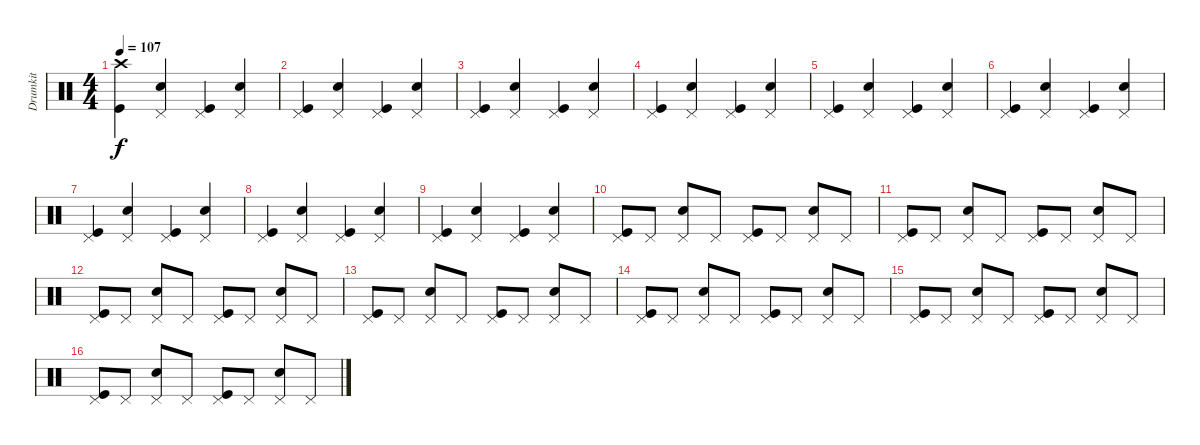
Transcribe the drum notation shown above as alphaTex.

\track ("Drumkit" "Drumkit") {instrument percussion}
\staff {score}
\articulation defaults
\ts (4 4)
\tempo 107
\clef neutral
\ks c
("Crash high (hit)" "Kick (hit)").4{dy f} ("Pedal Hi-Hat (hit)" "Snare (hit) 2").4 ("Pedal Hi-Hat (hit)" "Kick (hit)").4 ("Pedal Hi-Hat (hit)" "Snare (hit) 2").4 |
("Pedal Hi-Hat (hit)" "Kick (hit)").4 ("Pedal Hi-Hat (hit)" "Snare (hit) 2").4 ("Pedal Hi-Hat (hit)" "Kick (hit)").4 ("Pedal Hi-Hat (hit)" "Snare (hit) 2").4 |
("Pedal Hi-Hat (hit)" "Kick (hit)").4 ("Pedal Hi-Hat (hit)" "Snare (hit) 2").4 ("Pedal Hi-Hat (hit)" "Kick (hit)").4 ("Pedal Hi-Hat (hit)" "Snare (hit) 2").4 |
("Pedal Hi-Hat (hit)" "Kick (hit)").4 ("Pedal Hi-Hat (hit)" "Snare (hit) 2").4 ("Pedal Hi-Hat (hit)" "Kick (hit)").4 ("Pedal Hi-Hat (hit)" "Snare (hit) 2").4 |
("Pedal Hi-Hat (hit)" "Kick (hit)").4 ("Pedal Hi-Hat (hit)" "Snare (hit) 2").4 ("Pedal Hi-Hat (hit)" "Kick (hit)").4 ("Pedal Hi-Hat (hit)" "Snare (hit) 2").4 |
("Pedal Hi-Hat (hit)" "Kick (hit)").4 ("Pedal Hi-Hat (hit)" "Snare (hit) 2").4 ("Pedal Hi-Hat (hit)" "Kick (hit)").4 ("Pedal Hi-Hat (hit)" "Snare (hit) 2").4 |
("Pedal Hi-Hat (hit)" "Kick (hit)").4 ("Pedal Hi-Hat (hit)" "Snare (hit) 2").4 ("Pedal Hi-Hat (hit)" "Kick (hit)").4 ("Pedal Hi-Hat (hit)" "Snare (hit) 2").4 |
("Pedal Hi-Hat (hit)" "Kick (hit)").4 ("Pedal Hi-Hat (hit)" "Snare (hit) 2").4 ("Pedal Hi-Hat (hit)" "Kick (hit)").4 ("Pedal Hi-Hat (hit)" "Snare (hit) 2").4 |
("Pedal Hi-Hat (hit)" "Kick (hit)").4 ("Pedal Hi-Hat (hit)" "Snare (hit) 2").4 ("Pedal Hi-Hat (hit)" "Kick (hit)").4 ("Pedal Hi-Hat (hit)" "Snare (hit) 2").4 |
("Pedal Hi-Hat (hit)" "Kick (hit)").8 "Pedal Hi-Hat (hit)".8 ("Pedal Hi-Hat (hit)" "Snare (hit) 2").8 "Pedal Hi-Hat (hit)".8 ("Pedal Hi-Hat (hit)" "Kick (hit)").8 "Pedal Hi-Hat (hit)".8 ("Pedal Hi-Hat (hit)" "Snare (hit) 2").8 "Pedal Hi-Hat (hit)".8 |
("Pedal Hi-Hat (hit)" "Kick (hit)").8 "Pedal Hi-Hat (hit)".8 ("Pedal Hi-Hat (hit)" "Snare (hit) 2").8 "Pedal Hi-Hat (hit)".8 ("Pedal Hi-Hat (hit)" "Kick (hit)").8 "Pedal Hi-Hat (hit)".8 ("Pedal Hi-Hat (hit)" "Snare (hit) 2").8 "Pedal Hi-Hat (hit)".8 |
("Pedal Hi-Hat (hit)" "Kick (hit)").8 "Pedal Hi-Hat (hit)".8 ("Pedal Hi-Hat (hit)" "Snare (hit) 2").8 "Pedal Hi-Hat (hit)".8 ("Pedal Hi-Hat (hit)" "Kick (hit)").8 "Pedal Hi-Hat (hit)".8 ("Pedal Hi-Hat (hit)" "Snare (hit) 2").8 "Pedal Hi-Hat (hit)".8 |
("Pedal Hi-Hat (hit)" "Kick (hit)").8 "Pedal Hi-Hat (hit)".8 ("Pedal Hi-Hat (hit)" "Snare (hit) 2").8 "Pedal Hi-Hat (hit)".8 ("Pedal Hi-Hat (hit)" "Kick (hit)").8 "Pedal Hi-Hat (hit)".8 ("Pedal Hi-Hat (hit)" "Snare (hit) 2").8 "Pedal Hi-Hat (hit)".8 |
("Pedal Hi-Hat (hit)" "Kick (hit)").8 "Pedal Hi-Hat (hit)".8 ("Pedal Hi-Hat (hit)" "Snare (hit) 2").8 "Pedal Hi-Hat (hit)".8 ("Pedal Hi-Hat (hit)" "Kick (hit)").8 "Pedal Hi-Hat (hit)".8 ("Pedal Hi-Hat (hit)" "Snare (hit) 2").8 "Pedal Hi-Hat (hit)".8 |
("Pedal Hi-Hat (hit)" "Kick (hit)").8 "Pedal Hi-Hat (hit)".8 ("Pedal Hi-Hat (hit)" "Snare (hit) 2").8 "Pedal Hi-Hat (hit)".8 ("Pedal Hi-Hat (hit)" "Kick (hit)").8 "Pedal Hi-Hat (hit)".8 ("Pedal Hi-Hat (hit)" "Snare (hit) 2").8 "Pedal Hi-Hat (hit)".8 |
("Pedal Hi-Hat (hit)" "Kick (hit)").8 "Pedal Hi-Hat (hit)".8 ("Pedal Hi-Hat (hit)" "Snare (hit) 2").8 "Pedal Hi-Hat (hit)".8 ("Pedal Hi-Hat (hit)" "Kick (hit)").8 "Pedal Hi-Hat (hit)".8 ("Pedal Hi-Hat (hit)" "Snare (hit) 2").8 "Pedal Hi-Hat (hit)".8
